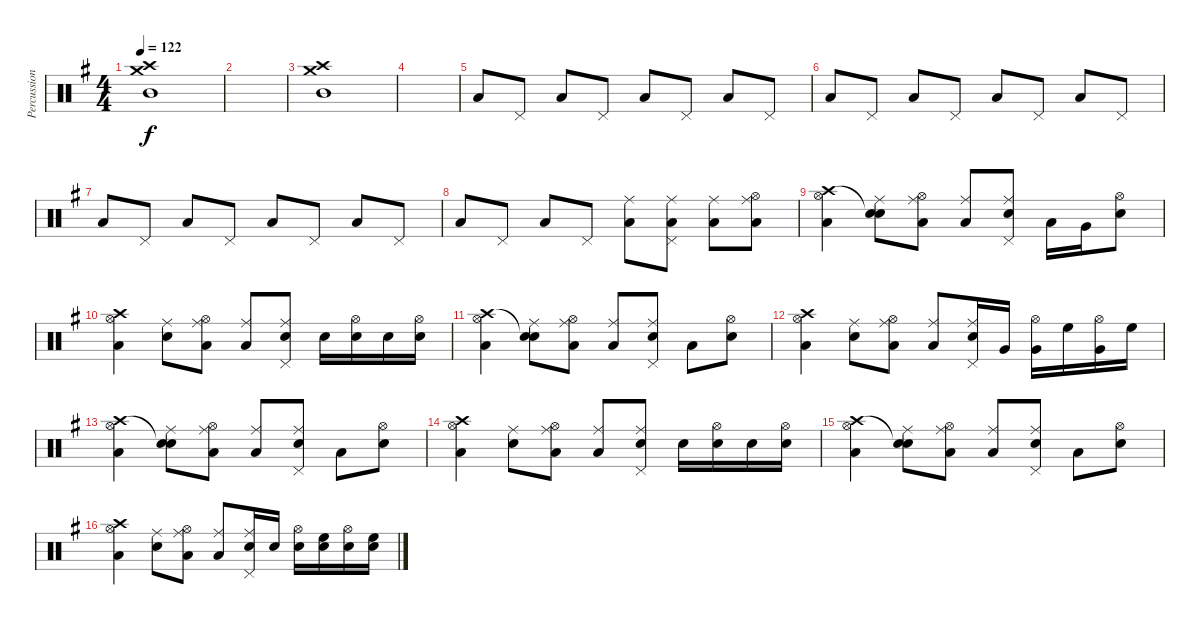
\track ("Percussion" "Percussion") {instrument percussion}
\staff {score}
\articulation defaults
\ts (4 4)
\tempo 122
\clef neutral
\ks g
("Crash high (hit)" "Crash medium (hit)" "Mid Tom (hit)").1{dy f} |
|
("Crash high (hit)" "Crash medium (hit)" "Mid Tom (hit)").1 |
|
"Low Tom (hit)".8 "Pedal Hi-Hat (hit)".8 "Low Tom (hit)".8 "Pedal Hi-Hat (hit)".8 "Low Tom (hit)".8 "Pedal Hi-Hat (hit)".8 "Low Tom (hit)".8 "Pedal Hi-Hat (hit)".8 |
"Low Tom (hit)".8 "Pedal Hi-Hat (hit)".8 "Low Tom (hit)".8 "Pedal Hi-Hat (hit)".8 "Low Tom (hit)".8 "Pedal Hi-Hat (hit)".8 "Low Tom (hit)".8 "Pedal Hi-Hat (hit)".8 |
"Low Tom (hit)".8 "Pedal Hi-Hat (hit)".8 "Low Tom (hit)".8 "Pedal Hi-Hat (hit)".8 "Low Tom (hit)".8 "Pedal Hi-Hat (hit)".8 "Low Tom (hit)".8 "Pedal Hi-Hat (hit)".8 |
"Low Tom (hit)".8 "Pedal Hi-Hat (hit)".8 "Low Tom (hit)".8 "Pedal Hi-Hat (hit)".8 ("Ride (middle)" "Low Tom (hit)").8 ("Ride (middle)" "Pedal Hi-Hat (hit)" "Low Tom (hit)").8 ("Ride (middle)" "Low Tom (hit)").8 ("Ride (middle)" "Hi-Hat (open)" "Low Tom (hit)").8 |
("Crash high (hit)" "Hi-Hat (open)" "Low Tom (hit)").4 ("Snare (hit)"{t} "Ride (middle)" "Electric Snare (hit)").8 ("Hi-Hat (open)" "Ride (middle)" "Low Tom (hit)").8 ("Ride (middle)" "Low Tom (hit)").8 ("Pedal Hi-Hat (hit)" "Ride (middle)" "Electric Snare (hit)").8 "Low Tom (hit)".16 "Very Low Tom (hit)".16 ("Hi-Hat (open)" "Electric Snare (hit)").8 |
("Crash high (hit)" "Hi-Hat (open)" "Low Tom (hit)").4 ("Ride (middle)" "Electric Snare (hit)").8 ("Hi-Hat (open)" "Ride (middle)" "Low Tom (hit)").8 ("Ride (middle)" "Low Tom (hit)").8 ("Pedal Hi-Hat (hit)" "Ride (middle)" "Electric Snare (hit)").8 "Electric Snare (hit)".16 ("Hi-Hat (open)" "Snare (hit) 2").16 "Snare (hit) 2".16 ("Hi-Hat (open)" "Electric Snare (hit)").16 |
("Crash high (hit)" "Hi-Hat (open)" "Low Tom (hit)").4 ("Snare (hit)"{t} "Ride (middle)" "Electric Snare (hit)").8 ("Hi-Hat (open)" "Ride (middle)" "Low Tom (hit)").8 ("Ride (middle)" "Low Tom (hit)").8 ("Pedal Hi-Hat (hit)" "Ride (middle)" "Electric Snare (hit)").8 "Low Tom (hit)".8 ("Hi-Hat (open)" "Electric Snare (hit)").8 |
("Crash high (hit)" "Hi-Hat (open)" "Low Tom (hit)").4 ("Ride (middle)" "Electric Snare (hit)").8 ("Hi-Hat (open)" "Ride (middle)" "Low Tom (hit)").8 ("Ride (middle)" "Low Tom (hit)").8 ("Pedal Hi-Hat (hit)" "Ride (middle)" "Electric Snare (hit)").16 "Very Low Tom (hit)".16 ("Hi-Hat (open)" "Very Low Tom (hit)").16 "High Floor Tom (hit)".16 ("Hi-Hat (open)" "Very Low Tom (hit)").16 "High Floor Tom (hit)".16 |
("Crash high (hit)" "Hi-Hat (open)" "Low Tom (hit)").4 ("Snare (hit)"{t} "Ride (middle)" "Electric Snare (hit)").8 ("Hi-Hat (open)" "Ride (middle)" "Low Tom (hit)").8 ("Ride (middle)" "Low Tom (hit)").8 ("Pedal Hi-Hat (hit)" "Ride (middle)" "Electric Snare (hit)").8 "Low Tom (hit)".8 ("Hi-Hat (open)" "Electric Snare (hit)").8 |
("Crash high (hit)" "Hi-Hat (open)" "Low Tom (hit)").4 ("Ride (middle)" "Electric Snare (hit)").8 ("Hi-Hat (open)" "Ride (middle)" "Low Tom (hit)").8 ("Ride (middle)" "Low Tom (hit)").8 ("Pedal Hi-Hat (hit)" "Ride (middle)" "Electric Snare (hit)").8 "Electric Snare (hit)".16 ("Hi-Hat (open)" "Snare (hit) 2").16 "Snare (hit) 2".16 ("Hi-Hat (open)" "Electric Snare (hit)").16 |
("Crash high (hit)" "Hi-Hat (open)" "Low Tom (hit)").4 ("Snare (hit)"{t} "Ride (middle)" "Electric Snare (hit)").8 ("Hi-Hat (open)" "Ride (middle)" "Low Tom (hit)").8 ("Ride (middle)" "Low Tom (hit)").8 ("Pedal Hi-Hat (hit)" "Ride (middle)" "Electric Snare (hit)").8 "Low Tom (hit)".8 ("Hi-Hat (open)" "Electric Snare (hit)").8 |
("Crash high (hit)" "Hi-Hat (open)" "Low Tom (hit)").4 ("Ride (middle)" "Electric Snare (hit)").8 ("Hi-Hat (open)" "Ride (middle)" "Low Tom (hit)").8 ("Ride (middle)" "Low Tom (hit)").8 ("Pedal Hi-Hat (hit)" "Ride (middle)" "Electric Snare (hit)").16 "Electric Snare (hit)".16 ("Hi-Hat (open)" "Snare (hit) 2").16 ("Snare (hit) 2" "High Floor Tom (hit)").16 ("Hi-Hat (open)" "Electric Snare (hit)").16 ("Electric Snare (hit)" "High Floor Tom (hit)").16
